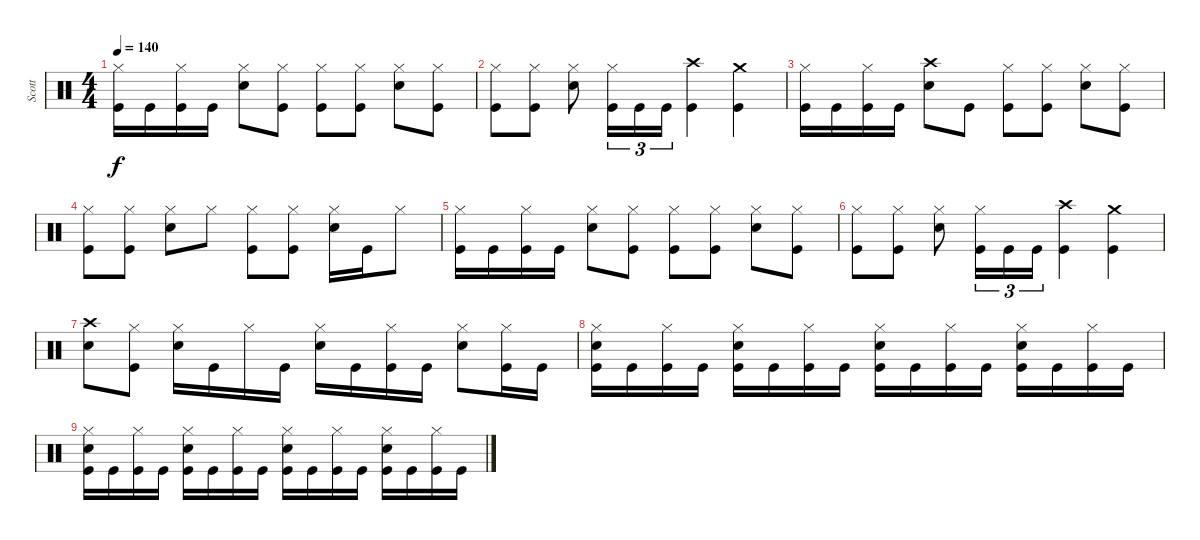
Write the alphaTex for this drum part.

\track ("Scott" "Scott") {instrument percussion}
\staff {score}
\articulation defaults
\ts (4 4)
\tempo 140
\clef neutral
\ks c
("Kick (hit)" "Hi-Hat (closed)").16{dy f} "Kick (hit)".16 ("Kick (hit)" "Hi-Hat (closed)").16 "Kick (hit)".16 ("Snare (hit) 2" "Hi-Hat (closed)").8 ("Kick (hit)" "Hi-Hat (closed)").8 ("Kick (hit)" "Hi-Hat (closed)").8 ("Kick (hit)" "Hi-Hat (closed)").8 ("Snare (hit) 2" "Hi-Hat (closed)").8 ("Kick (hit)" "Hi-Hat (closed)").8 |
("Kick (hit)" "Hi-Hat (closed)").8 ("Kick (hit)" "Hi-Hat (closed)").8 ("Snare (hit) 2" "Hi-Hat (closed)").8 ("Kick (hit)" "Hi-Hat (closed)").16{tu (3 2)} "Kick (hit)".16{tu (3 2)} "Kick (hit)".16{tu (3 2)} ("Kick (hit)" "Crash high (hit)").4 ("Kick (hit)" "Crash medium (hit)").4 |
("Kick (hit)" "Hi-Hat (closed)").16 "Kick (hit)".16 ("Kick (hit)" "Hi-Hat (closed)").16 "Kick (hit)".16 ("Snare (hit) 2" "Crash high (hit)").8 "Kick (hit)".8 ("Kick (hit)" "Hi-Hat (closed)").8 ("Kick (hit)" "Hi-Hat (closed)").8 ("Snare (hit) 2" "Hi-Hat (closed)").8 ("Kick (hit)" "Hi-Hat (closed)").8 |
("Kick (hit)" "Hi-Hat (closed)").8 ("Kick (hit)" "Hi-Hat (closed)").8 ("Snare (hit) 2" "Hi-Hat (closed)").8 "Hi-Hat (closed)".8 ("Kick (hit)" "Hi-Hat (closed)").8 ("Kick (hit)" "Hi-Hat (closed)").8 ("Snare (hit) 2" "Hi-Hat (closed)").16 "Kick (hit)".16 "Hi-Hat (closed)".8 |
("Kick (hit)" "Hi-Hat (closed)").16 "Kick (hit)".16 ("Kick (hit)" "Hi-Hat (closed)").16 "Kick (hit)".16 ("Snare (hit) 2" "Hi-Hat (closed)").8 ("Kick (hit)" "Hi-Hat (closed)").8 ("Kick (hit)" "Hi-Hat (closed)").8 ("Kick (hit)" "Hi-Hat (closed)").8 ("Snare (hit) 2" "Hi-Hat (closed)").8 ("Kick (hit)" "Hi-Hat (closed)").8 |
("Kick (hit)" "Hi-Hat (closed)").8 ("Kick (hit)" "Hi-Hat (closed)").8 ("Snare (hit) 2" "Hi-Hat (closed)").8 ("Kick (hit)" "Hi-Hat (closed)").16{tu (3 2)} "Kick (hit)".16{tu (3 2)} "Kick (hit)".16{tu (3 2)} ("Kick (hit)" "Crash high (hit)").4 ("Kick (hit)" "Crash medium (hit)").4 |
("Snare (hit) 2" "Crash high (hit)").8 ("Kick (hit)" "Hi-Hat (closed)").8 ("Snare (hit) 2" "Hi-Hat (closed)").16 "Kick (hit)".16 "Hi-Hat (closed)".16 "Kick (hit)".16 ("Snare (hit) 2" "Hi-Hat (closed)").16 "Kick (hit)".16 ("Kick (hit)" "Hi-Hat (closed)").16 "Kick (hit)".16 ("Snare (hit) 2" "Hi-Hat (closed)").8 ("Kick (hit)" "Hi-Hat (closed)").16 "Kick (hit)".16 |
("Kick (hit)" "Snare (hit) 2" "Hi-Hat (closed)").16 "Kick (hit)".16 ("Kick (hit)" "Hi-Hat (closed)").16 "Kick (hit)".16 ("Kick (hit)" "Snare (hit) 2" "Hi-Hat (closed)").16 "Kick (hit)".16 ("Kick (hit)" "Hi-Hat (closed)").16 "Kick (hit)".16 ("Kick (hit)" "Snare (hit) 2" "Hi-Hat (closed)").16 "Kick (hit)".16 ("Kick (hit)" "Hi-Hat (closed)").16 "Kick (hit)".16 ("Kick (hit)" "Snare (hit) 2" "Hi-Hat (closed)").16 "Kick (hit)".16 ("Kick (hit)" "Hi-Hat (closed)").16 "Kick (hit)".16 |
("Kick (hit)" "Snare (hit) 2" "Hi-Hat (closed)").16 "Kick (hit)".16 ("Kick (hit)" "Hi-Hat (closed)").16 "Kick (hit)".16 ("Kick (hit)" "Snare (hit) 2" "Hi-Hat (closed)").16 "Kick (hit)".16 ("Kick (hit)" "Hi-Hat (closed)").16 "Kick (hit)".16 ("Kick (hit)" "Snare (hit) 2" "Hi-Hat (closed)").16 "Kick (hit)".16 ("Kick (hit)" "Hi-Hat (closed)").16 "Kick (hit)".16 ("Kick (hit)" "Snare (hit) 2" "Hi-Hat (closed)").16 "Kick (hit)".16 ("Kick (hit)" "Hi-Hat (closed)").16 "Kick (hit)".16
